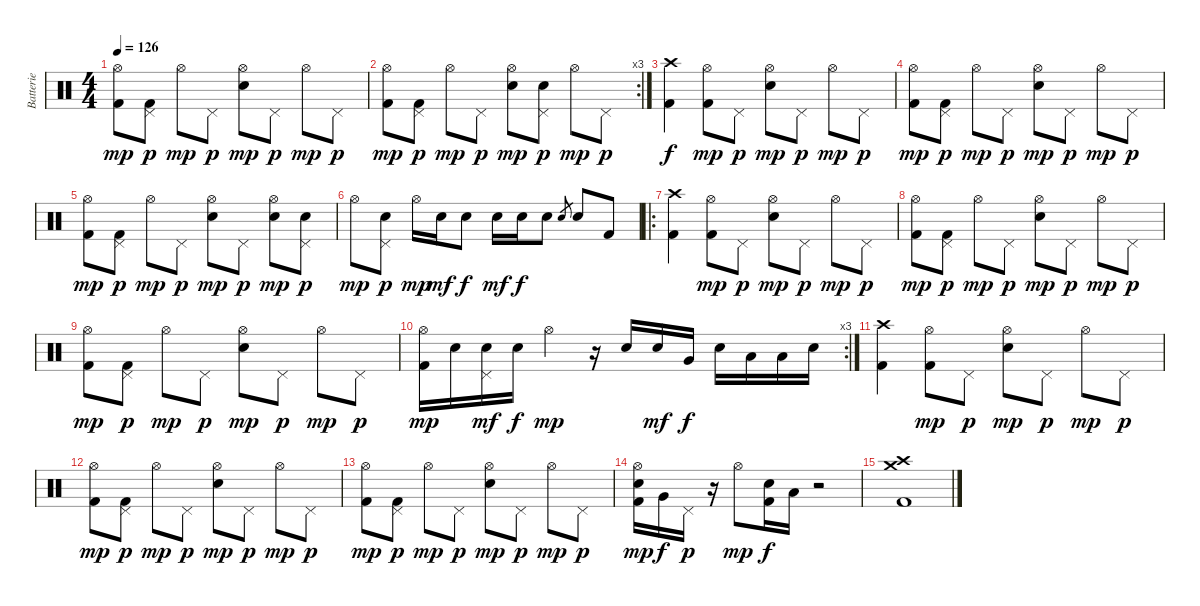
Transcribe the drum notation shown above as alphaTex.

\track ("Batterie" "Batterie") {instrument percussion}
\staff {score}
\articulation defaults
\ts (4 4)
\tempo 126
\clef neutral
\ks c
("Hi-Hat (open)" "Kick (hit) 2").8{dy mp} ("Pedal Hi-Hat (hit)" "Kick (hit) 2").8{dy p} "Hi-Hat (open)".8{dy mp} "Pedal Hi-Hat (hit)".8{dy p} ("Hi-Hat (open)" "Electric Snare (hit)").8{dy mp} "Pedal Hi-Hat (hit)".8{dy p} "Hi-Hat (open)".8{dy mp} "Pedal Hi-Hat (hit)".8{dy p} |
\rc 3
("Hi-Hat (open)" "Kick (hit) 2").8{dy mp} ("Pedal Hi-Hat (hit)" "Kick (hit) 2").8{dy p} "Hi-Hat (open)".8{dy mp} "Pedal Hi-Hat (hit)".8{dy p} ("Hi-Hat (open)" "Electric Snare (hit)").8{dy mp} ("Pedal Hi-Hat (hit)" "Electric Snare (hit)").8{dy p} "Hi-Hat (open)".8{dy mp} "Pedal Hi-Hat (hit)".8{dy p} |
("Crash high (hit)" "Kick (hit) 2").4{dy f} ("Hi-Hat (open)" "Kick (hit) 2").8{dy mp} "Pedal Hi-Hat (hit)".8{dy p} ("Hi-Hat (open)" "Electric Snare (hit)").8{dy mp} "Pedal Hi-Hat (hit)".8{dy p} "Hi-Hat (open)".8{dy mp} "Pedal Hi-Hat (hit)".8{dy p} |
("Hi-Hat (open)" "Kick (hit) 2").8{dy mp} ("Pedal Hi-Hat (hit)" "Kick (hit) 2").8{dy p} "Hi-Hat (open)".8{dy mp} "Pedal Hi-Hat (hit)".8{dy p} ("Hi-Hat (open)" "Electric Snare (hit)").8{dy mp} "Pedal Hi-Hat (hit)".8{dy p} "Hi-Hat (open)".8{dy mp} "Pedal Hi-Hat (hit)".8{dy p} |
("Hi-Hat (open)" "Kick (hit) 2").8{dy mp} ("Pedal Hi-Hat (hit)" "Kick (hit) 2").8{dy p} "Hi-Hat (open)".8{dy mp} "Pedal Hi-Hat (hit)".8{dy p} ("Hi-Hat (open)" "Electric Snare (hit)").8{dy mp} "Pedal Hi-Hat (hit)".8{dy p} ("Hi-Hat (open)" "Electric Snare (hit)").8{dy mp} ("Pedal Hi-Hat (hit)" "Electric Snare (hit)").8{dy p} |
"Hi-Hat (open)".8{dy mp} ("Pedal Hi-Hat (hit)" "Electric Snare (hit)").8{dy p} "Hi-Hat (open)".16{dy mp} "Electric Snare (hit)".16{dy mf} "Electric Snare (hit)".8{dy f} "Electric Snare (hit)".16{dy mf} "Electric Snare (hit)".16{dy f} "Electric Snare (hit)".8 "Electric Snare (hit)".8{gr} "Electric Snare (hit)".8 "Kick (hit) 2".8 |
\ro
("Crash high (hit)" "Kick (hit) 2").4 ("Hi-Hat (open)" "Kick (hit) 2").8{dy mp} "Pedal Hi-Hat (hit)".8{dy p} ("Hi-Hat (open)" "Electric Snare (hit)").8{dy mp} "Pedal Hi-Hat (hit)".8{dy p} "Hi-Hat (open)".8{dy mp} "Pedal Hi-Hat (hit)".8{dy p} |
("Hi-Hat (open)" "Kick (hit) 2").8{dy mp} ("Pedal Hi-Hat (hit)" "Kick (hit) 2").8{dy p} "Hi-Hat (open)".8{dy mp} "Pedal Hi-Hat (hit)".8{dy p} ("Hi-Hat (open)" "Electric Snare (hit)").8{dy mp} "Pedal Hi-Hat (hit)".8{dy p} "Hi-Hat (open)".8{dy mp} "Pedal Hi-Hat (hit)".8{dy p} |
("Hi-Hat (open)" "Kick (hit) 2").8{dy mp} ("Pedal Hi-Hat (hit)" "Kick (hit) 2").8{dy p} "Hi-Hat (open)".8{dy mp} "Pedal Hi-Hat (hit)".8{dy p} ("Hi-Hat (open)" "Electric Snare (hit)").8{dy mp} "Pedal Hi-Hat (hit)".8{dy p} "Hi-Hat (open)".8{dy mp} "Pedal Hi-Hat (hit)".8{dy p} |
\rc 3
("Hi-Hat (open)" "Kick (hit) 2").16{dy mp} "Electric Snare (hit)".16 ("Pedal Hi-Hat (hit)" "Electric Snare (hit)").16{dy mf} "Electric Snare (hit)".16{dy f} "Hi-Hat (open)".4{dy mp} r.16 "Electric Snare (hit)".16 "Electric Snare (hit)".16{dy mf} "Very Low Tom (hit)".16{dy f} "Electric Snare (hit)".16 "Low Floor Tom (hit)".16 "Low Floor Tom (hit)".16 "Electric Snare (hit)".16 |
("Crash high (hit)" "Kick (hit) 2").4 ("Hi-Hat (open)" "Kick (hit) 2").8{dy mp} "Pedal Hi-Hat (hit)".8{dy p} ("Hi-Hat (open)" "Electric Snare (hit)").8{dy mp} "Pedal Hi-Hat (hit)".8{dy p} "Hi-Hat (open)".8{dy mp} "Pedal Hi-Hat (hit)".8{dy p} |
("Hi-Hat (open)" "Kick (hit) 2").8{dy mp} ("Pedal Hi-Hat (hit)" "Kick (hit) 2").8{dy p} "Hi-Hat (open)".8{dy mp} "Pedal Hi-Hat (hit)".8{dy p} ("Hi-Hat (open)" "Electric Snare (hit)").8{dy mp} "Pedal Hi-Hat (hit)".8{dy p} "Hi-Hat (open)".8{dy mp} "Pedal Hi-Hat (hit)".8{dy p} |
("Hi-Hat (open)" "Kick (hit) 2").8{dy mp} ("Pedal Hi-Hat (hit)" "Kick (hit) 2").8{dy p} "Hi-Hat (open)".8{dy mp} "Pedal Hi-Hat (hit)".8{dy p} ("Hi-Hat (open)" "Electric Snare (hit)").8{dy mp} "Pedal Hi-Hat (hit)".8{dy p} "Hi-Hat (open)".8{dy mp} "Pedal Hi-Hat (hit)".8{dy p} |
("Hi-Hat (open)" "Electric Snare (hit)" "Kick (hit) 2").16{dy mp} "Very Low Tom (hit)".16{dy f} "Pedal Hi-Hat (hit)".16{dy p} r.16 "Hi-Hat (open)".8{dy mp} ("Electric Snare (hit)" "Kick (hit) 2").16{dy f} "Low Floor Tom (hit)".16 r.2 |
("Crash medium (hit)" "Crash high (hit)" "Kick (hit) 2").1
